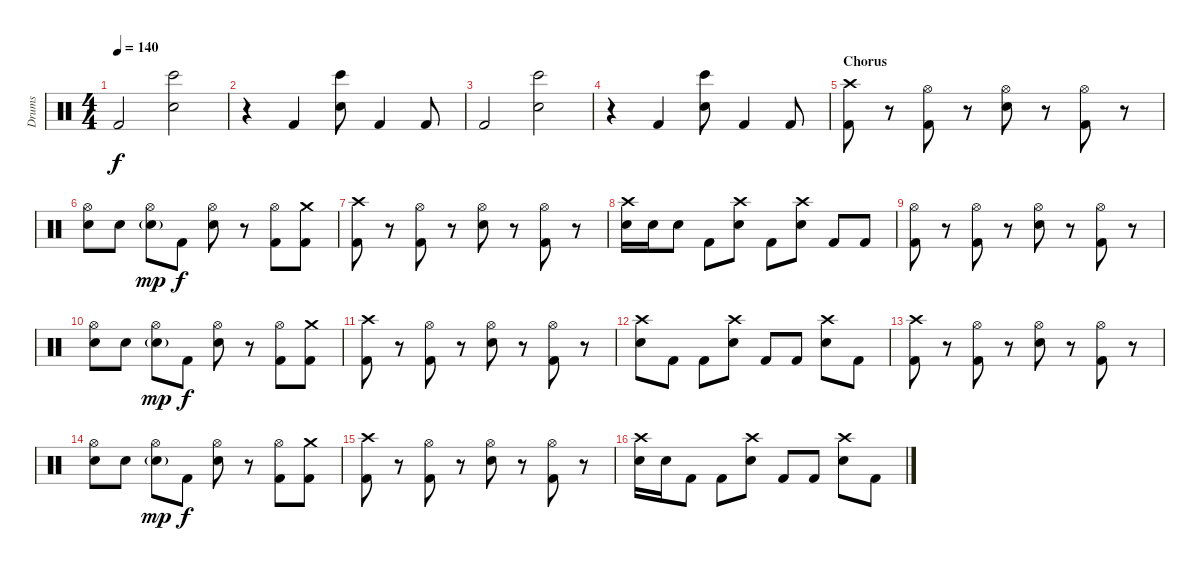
\track ("Drums" "Drums") {instrument percussion}
\staff {score}
\articulation defaults
\ts (4 4)
\tempo 140
\clef neutral
\ks c "Kick (hit) 2".2{dy f}
("Bongo High (hit)" "Snare (hit) 2").2 |
r.4 "Kick (hit) 2".4 ("Bongo High (hit)" "Snare (hit) 2").8 "Kick (hit) 2".4 "Kick (hit) 2".8 |
"Kick (hit) 2".2 ("Bongo High (hit)" "Snare (hit) 2").2 |
r.4 "Kick (hit) 2".4 ("Bongo High (hit)" "Snare (hit) 2").8 "Kick (hit) 2".4 "Kick (hit) 2".8 |
\section ("" "Chorus")
("Crash high (hit)" "Kick (hit) 2").8 r.8 ("Hi-Hat (open)" "Kick (hit) 2").8 r.8 ("Hi-Hat (open)" "Snare (hit) 2").8 r.8 ("Hi-Hat (open)" "Kick (hit) 2").8 r.8 |
("Hi-Hat (open)" "Snare (hit) 2").8 "Snare (hit) 2".8 ("Hi-Hat (open)" "Snare (hit) 2"{g}).8{dy mp} "Kick (hit) 2".8{dy f} ("Hi-Hat (open)" "Snare (hit) 2").8 r.8 ("Hi-Hat (open)" "Kick (hit) 2").8 ("Crash medium (hit)" "Kick (hit) 2").8 |
("Crash high (hit)" "Kick (hit) 2").8 r.8 ("Hi-Hat (open)" "Kick (hit) 2").8 r.8 ("Hi-Hat (open)" "Snare (hit) 2").8 r.8 ("Hi-Hat (open)" "Kick (hit) 2").8 r.8 |
("Crash high (hit)" "Snare (hit) 2").16 "Snare (hit) 2".16 "Snare (hit) 2".8 "Kick (hit) 2".8 ("Crash high (hit)" "Snare (hit) 2").8 "Kick (hit) 2".8 ("Crash high (hit)" "Snare (hit) 2").8 "Kick (hit) 2".8 "Kick (hit) 2".8 |
("Hi-Hat (open)" "Kick (hit) 2").8 r.8 ("Hi-Hat (open)" "Kick (hit) 2").8 r.8 ("Hi-Hat (open)" "Snare (hit) 2").8 r.8 ("Hi-Hat (open)" "Kick (hit) 2").8 r.8 |
("Hi-Hat (open)" "Snare (hit) 2").8 "Snare (hit) 2".8 ("Hi-Hat (open)" "Snare (hit) 2"{g}).8{dy mp} "Kick (hit) 2".8{dy f} ("Hi-Hat (open)" "Snare (hit) 2").8 r.8 ("Hi-Hat (open)" "Kick (hit) 2").8 ("Crash medium (hit)" "Kick (hit) 2").8 |
("Crash high (hit)" "Kick (hit) 2").8 r.8 ("Hi-Hat (open)" "Kick (hit) 2").8 r.8 ("Hi-Hat (open)" "Snare (hit) 2").8 r.8 ("Hi-Hat (open)" "Kick (hit) 2").8 r.8 |
("Crash high (hit)" "Snare (hit) 2").8 "Kick (hit) 2".8 "Kick (hit) 2".8 ("Crash high (hit)" "Snare (hit) 2").8 "Kick (hit) 2".8 "Kick (hit) 2".8 ("Crash high (hit)" "Snare (hit) 2").8 "Kick (hit) 2".8 |
("Crash high (hit)" "Kick (hit) 2").8 r.8 ("Hi-Hat (open)" "Kick (hit) 2").8 r.8 ("Hi-Hat (open)" "Snare (hit) 2").8 r.8 ("Hi-Hat (open)" "Kick (hit) 2").8 r.8 |
("Hi-Hat (open)" "Snare (hit) 2").8 "Snare (hit) 2".8 ("Hi-Hat (open)" "Snare (hit) 2"{g}).8{dy mp} "Kick (hit) 2".8{dy f} ("Hi-Hat (open)" "Snare (hit) 2").8 r.8 ("Hi-Hat (open)" "Kick (hit) 2").8 ("Crash medium (hit)" "Kick (hit) 2").8 |
("Crash high (hit)" "Kick (hit) 2").8 r.8 ("Hi-Hat (open)" "Kick (hit) 2").8 r.8 ("Hi-Hat (open)" "Snare (hit) 2").8 r.8 ("Hi-Hat (open)" "Kick (hit) 2").8 r.8 |
("Crash high (hit)" "Snare (hit) 2").16 "Snare (hit) 2".16 "Kick (hit) 2".8 "Kick (hit) 2".8 ("Crash high (hit)" "Snare (hit) 2").8 "Kick (hit) 2".8 "Kick (hit) 2".8 ("Crash high (hit)" "Snare (hit) 2").8 "Kick (hit) 2".8
